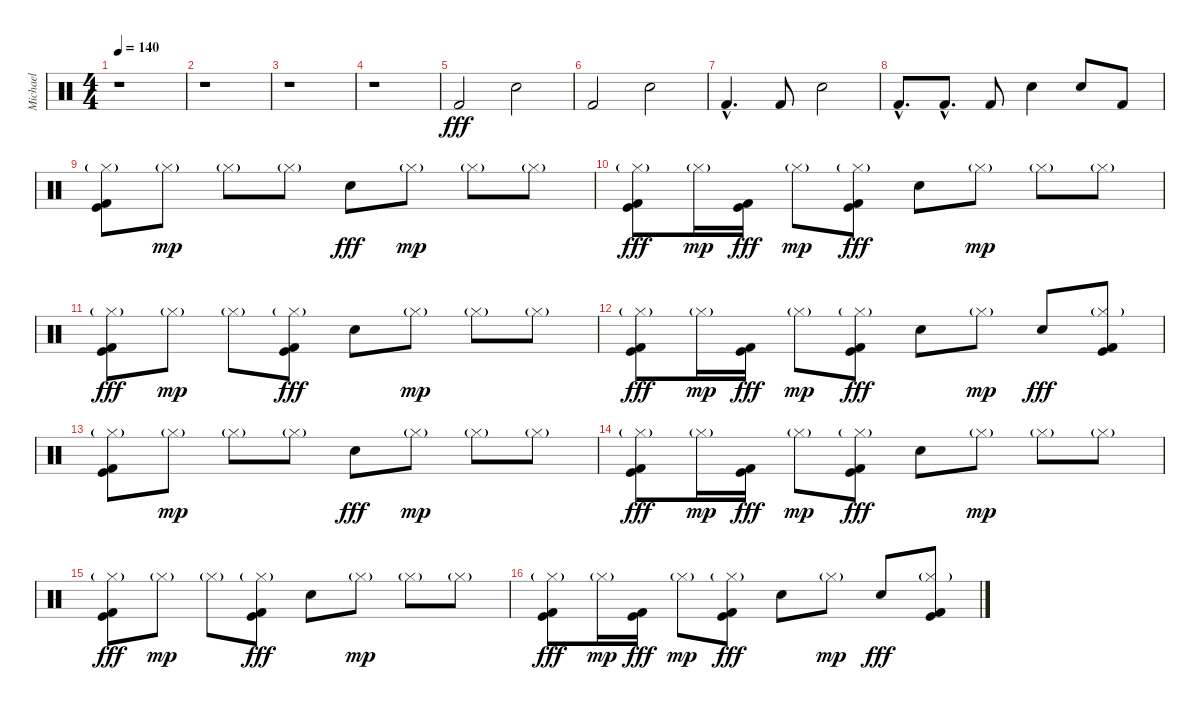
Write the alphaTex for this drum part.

\track ("Michael" "Michael") {instrument percussion}
\staff {score}
\articulation defaults
\ts (4 4)
\tempo 140
\clef neutral
\ks c
r.1{dy fff} |
r.1 |
r.1 |
r.1 |
"Kick (hit) 2".2 "Snare (hit) 2".2 |
"Kick (hit) 2".2 "Snare (hit) 2".2 |
"Kick (hit) 2"{hac}.4{d} "Kick (hit) 2".8 "Snare (hit) 2".2 |
"Kick (hit) 2"{hac}.8{d} "Kick (hit) 2"{hac}.8{d} "Kick (hit) 2".8 "Snare (hit) 2".4 "Snare (hit) 2".8 "Kick (hit) 2".8 |
("Hi-Hat (closed)"{g} "Kick (hit)" "Kick (hit) 2").8 "Hi-Hat (closed)"{g}.8{dy mp} "Hi-Hat (closed)"{g}.8 "Hi-Hat (closed)"{g}.8 "Snare (hit) 2".8{dy fff} "Hi-Hat (closed)"{g}.8{dy mp} "Hi-Hat (closed)"{g}.8 "Hi-Hat (closed)"{g}.8 |
("Hi-Hat (closed)"{g} "Kick (hit)" "Kick (hit) 2").8{dy fff} "Hi-Hat (closed)"{g}.16{dy mp} ("Kick (hit)" "Kick (hit) 2").16{dy fff} "Hi-Hat (closed)"{g}.8{dy mp} ("Hi-Hat (closed)"{g} "Kick (hit)" "Kick (hit) 2").8{dy fff} "Snare (hit) 2".8 "Hi-Hat (closed)"{g}.8{dy mp} "Hi-Hat (closed)"{g}.8 "Hi-Hat (closed)"{g}.8 |
("Hi-Hat (closed)"{g} "Kick (hit)" "Kick (hit) 2").8{dy fff} "Hi-Hat (closed)"{g}.8{dy mp} "Hi-Hat (closed)"{g}.8 ("Hi-Hat (closed)"{g} "Kick (hit)" "Kick (hit) 2").8{dy fff} "Snare (hit) 2".8 "Hi-Hat (closed)"{g}.8{dy mp} "Hi-Hat (closed)"{g}.8 "Hi-Hat (closed)"{g}.8 |
("Hi-Hat (closed)"{g} "Kick (hit)" "Kick (hit) 2").8{dy fff} "Hi-Hat (closed)"{g}.16{dy mp} ("Kick (hit)" "Kick (hit) 2").16{dy fff} "Hi-Hat (closed)"{g}.8{dy mp} ("Hi-Hat (closed)"{g} "Kick (hit)" "Kick (hit) 2").8{dy fff} "Snare (hit) 2".8 "Hi-Hat (closed)"{g}.8{dy mp} "Snare (hit) 2".8{dy fff} ("Hi-Hat (closed)"{g} "Kick (hit)" "Kick (hit) 2").8 |
("Hi-Hat (closed)"{g} "Kick (hit)" "Kick (hit) 2").8 "Hi-Hat (closed)"{g}.8{dy mp} "Hi-Hat (closed)"{g}.8 "Hi-Hat (closed)"{g}.8 "Snare (hit) 2".8{dy fff} "Hi-Hat (closed)"{g}.8{dy mp} "Hi-Hat (closed)"{g}.8 "Hi-Hat (closed)"{g}.8 |
("Hi-Hat (closed)"{g} "Kick (hit)" "Kick (hit) 2").8{dy fff} "Hi-Hat (closed)"{g}.16{dy mp} ("Kick (hit)" "Kick (hit) 2").16{dy fff} "Hi-Hat (closed)"{g}.8{dy mp} ("Hi-Hat (closed)"{g} "Kick (hit)" "Kick (hit) 2").8{dy fff} "Snare (hit) 2".8 "Hi-Hat (closed)"{g}.8{dy mp} "Hi-Hat (closed)"{g}.8 "Hi-Hat (closed)"{g}.8 |
("Hi-Hat (closed)"{g} "Kick (hit)" "Kick (hit) 2").8{dy fff} "Hi-Hat (closed)"{g}.8{dy mp} "Hi-Hat (closed)"{g}.8 ("Hi-Hat (closed)"{g} "Kick (hit)" "Kick (hit) 2").8{dy fff} "Snare (hit) 2".8 "Hi-Hat (closed)"{g}.8{dy mp} "Hi-Hat (closed)"{g}.8 "Hi-Hat (closed)"{g}.8 |
("Hi-Hat (closed)"{g} "Kick (hit)" "Kick (hit) 2").8{dy fff} "Hi-Hat (closed)"{g}.16{dy mp} ("Kick (hit)" "Kick (hit) 2").16{dy fff} "Hi-Hat (closed)"{g}.8{dy mp} ("Hi-Hat (closed)"{g} "Kick (hit)" "Kick (hit) 2").8{dy fff} "Snare (hit) 2".8 "Hi-Hat (closed)"{g}.8{dy mp} "Snare (hit) 2".8{dy fff} ("Hi-Hat (closed)"{g} "Kick (hit)" "Kick (hit) 2").8
